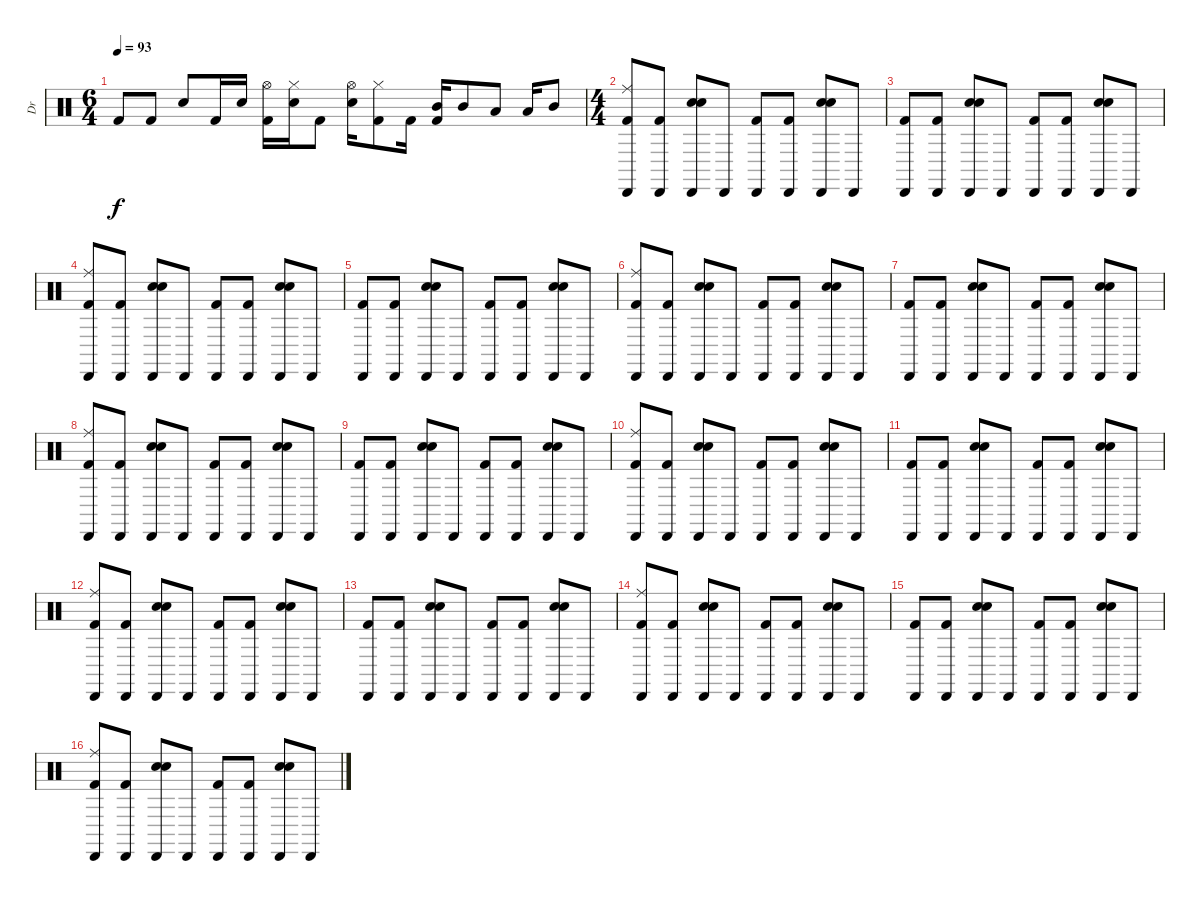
\track ("Dr" "Dr") {instrument percussion}
\staff {score}
\articulation defaults
\ts (6 4)
\tempo 93
\clef neutral
\ks c "Kick (hit) 2".8{dy f} "Kick (hit) 2".8 "Electric Snare (hit)".8 "Kick (hit) 2".16 "Electric Snare (hit)".16
("Hi-Hat (open)" "Kick (hit) 2").16 ("Hi-Hat (closed)" "Electric Snare (hit)").16 "Kick (hit) 2".8 ("Hi-Hat (open)" "Electric Snare (hit)").16 ("Hi-Hat (closed)" "Kick (hit) 2").8 "Kick (hit) 2".16 ("Mid Tom (hit)" "Kick (hit) 2").16 "Mid Tom (hit)".8 "Low Tom (hit)".8 "Low Tom (hit)".16 "Mid Tom (hit)".8 |
\ts (4 4)
("Ride (middle)" "Cabasa (hit)" "Kick (hit) 2").8 ("Cabasa (hit)" "Kick (hit) 2").8 ("Cabasa (hit)" "Electric Snare (hit)" "Hand Clap (hit)").8 "Cabasa (hit)".8 ("Cabasa (hit)" "Kick (hit) 2").8 ("Cabasa (hit)" "Kick (hit) 2").8 ("Cabasa (hit)" "Electric Snare (hit)" "Hand Clap (hit)").8 "Cabasa (hit)".8 |
("Cabasa (hit)" "Kick (hit) 2").8 ("Cabasa (hit)" "Kick (hit) 2").8 ("Cabasa (hit)" "Electric Snare (hit)" "Hand Clap (hit)").8 "Cabasa (hit)".8 ("Cabasa (hit)" "Kick (hit) 2").8 ("Cabasa (hit)" "Kick (hit) 2").8 ("Cabasa (hit)" "Electric Snare (hit)" "Hand Clap (hit)").8 "Cabasa (hit)".8 |
("Ride (middle)" "Cabasa (hit)" "Kick (hit) 2").8 ("Cabasa (hit)" "Kick (hit) 2").8 ("Cabasa (hit)" "Electric Snare (hit)" "Hand Clap (hit)").8 "Cabasa (hit)".8 ("Cabasa (hit)" "Kick (hit) 2").8 ("Cabasa (hit)" "Kick (hit) 2").8 ("Cabasa (hit)" "Electric Snare (hit)" "Hand Clap (hit)").8 "Cabasa (hit)".8 |
("Cabasa (hit)" "Kick (hit) 2").8 ("Cabasa (hit)" "Kick (hit) 2").8 ("Cabasa (hit)" "Electric Snare (hit)" "Hand Clap (hit)").8 "Cabasa (hit)".8 ("Cabasa (hit)" "Kick (hit) 2").8 ("Cabasa (hit)" "Kick (hit) 2").8 ("Cabasa (hit)" "Electric Snare (hit)" "Hand Clap (hit)").8 "Cabasa (hit)".8 |
("Ride (middle)" "Cabasa (hit)" "Kick (hit) 2").8 ("Cabasa (hit)" "Kick (hit) 2").8 ("Cabasa (hit)" "Electric Snare (hit)" "Hand Clap (hit)").8 "Cabasa (hit)".8 ("Cabasa (hit)" "Kick (hit) 2").8 ("Cabasa (hit)" "Kick (hit) 2").8 ("Cabasa (hit)" "Electric Snare (hit)" "Hand Clap (hit)").8 "Cabasa (hit)".8 |
("Cabasa (hit)" "Kick (hit) 2").8 ("Cabasa (hit)" "Kick (hit) 2").8 ("Cabasa (hit)" "Electric Snare (hit)" "Hand Clap (hit)").8 "Cabasa (hit)".8 ("Cabasa (hit)" "Kick (hit) 2").8 ("Cabasa (hit)" "Kick (hit) 2").8 ("Cabasa (hit)" "Electric Snare (hit)" "Hand Clap (hit)").8 "Cabasa (hit)".8 |
("Ride (middle)" "Cabasa (hit)" "Kick (hit) 2").8 ("Cabasa (hit)" "Kick (hit) 2").8 ("Cabasa (hit)" "Electric Snare (hit)" "Hand Clap (hit)").8 "Cabasa (hit)".8 ("Cabasa (hit)" "Kick (hit) 2").8 ("Cabasa (hit)" "Kick (hit) 2").8 ("Cabasa (hit)" "Electric Snare (hit)" "Hand Clap (hit)").8 "Cabasa (hit)".8 |
("Cabasa (hit)" "Kick (hit) 2").8 ("Cabasa (hit)" "Kick (hit) 2").8 ("Cabasa (hit)" "Electric Snare (hit)" "Hand Clap (hit)").8 "Cabasa (hit)".8 ("Cabasa (hit)" "Kick (hit) 2").8 ("Cabasa (hit)" "Kick (hit) 2").8 ("Cabasa (hit)" "Electric Snare (hit)" "Hand Clap (hit)").8 "Cabasa (hit)".8 |
("Ride (middle)" "Cabasa (hit)" "Kick (hit) 2").8 ("Cabasa (hit)" "Kick (hit) 2").8 ("Cabasa (hit)" "Electric Snare (hit)" "Hand Clap (hit)").8 "Cabasa (hit)".8 ("Cabasa (hit)" "Kick (hit) 2").8 ("Cabasa (hit)" "Kick (hit) 2").8 ("Cabasa (hit)" "Electric Snare (hit)" "Hand Clap (hit)").8 "Cabasa (hit)".8 |
("Cabasa (hit)" "Kick (hit) 2").8 ("Cabasa (hit)" "Kick (hit) 2").8 ("Cabasa (hit)" "Electric Snare (hit)" "Hand Clap (hit)").8 "Cabasa (hit)".8 ("Cabasa (hit)" "Kick (hit) 2").8 ("Cabasa (hit)" "Kick (hit) 2").8 ("Cabasa (hit)" "Electric Snare (hit)" "Hand Clap (hit)").8 "Cabasa (hit)".8 |
("Ride (middle)" "Cabasa (hit)" "Kick (hit) 2").8 ("Cabasa (hit)" "Kick (hit) 2").8 ("Cabasa (hit)" "Electric Snare (hit)" "Hand Clap (hit)").8 "Cabasa (hit)".8 ("Cabasa (hit)" "Kick (hit) 2").8 ("Cabasa (hit)" "Kick (hit) 2").8 ("Cabasa (hit)" "Electric Snare (hit)" "Hand Clap (hit)").8 "Cabasa (hit)".8 |
("Cabasa (hit)" "Kick (hit) 2").8 ("Cabasa (hit)" "Kick (hit) 2").8 ("Cabasa (hit)" "Electric Snare (hit)" "Hand Clap (hit)").8 "Cabasa (hit)".8 ("Cabasa (hit)" "Kick (hit) 2").8 ("Cabasa (hit)" "Kick (hit) 2").8 ("Cabasa (hit)" "Electric Snare (hit)" "Hand Clap (hit)").8 "Cabasa (hit)".8 |
("Ride (middle)" "Cabasa (hit)" "Kick (hit) 2").8 ("Cabasa (hit)" "Kick (hit) 2").8 ("Cabasa (hit)" "Electric Snare (hit)" "Hand Clap (hit)").8 "Cabasa (hit)".8 ("Cabasa (hit)" "Kick (hit) 2").8 ("Cabasa (hit)" "Kick (hit) 2").8 ("Cabasa (hit)" "Electric Snare (hit)" "Hand Clap (hit)").8 "Cabasa (hit)".8 |
("Cabasa (hit)" "Kick (hit) 2").8 ("Cabasa (hit)" "Kick (hit) 2").8 ("Cabasa (hit)" "Electric Snare (hit)" "Hand Clap (hit)").8 "Cabasa (hit)".8 ("Cabasa (hit)" "Kick (hit) 2").8 ("Cabasa (hit)" "Kick (hit) 2").8 ("Cabasa (hit)" "Electric Snare (hit)" "Hand Clap (hit)").8 "Cabasa (hit)".8 |
("Ride (middle)" "Cabasa (hit)" "Kick (hit) 2").8 ("Cabasa (hit)" "Kick (hit) 2").8 ("Cabasa (hit)" "Electric Snare (hit)" "Hand Clap (hit)").8 "Cabasa (hit)".8 ("Cabasa (hit)" "Kick (hit) 2").8 ("Cabasa (hit)" "Kick (hit) 2").8 ("Cabasa (hit)" "Electric Snare (hit)" "Hand Clap (hit)").8 "Cabasa (hit)".8
